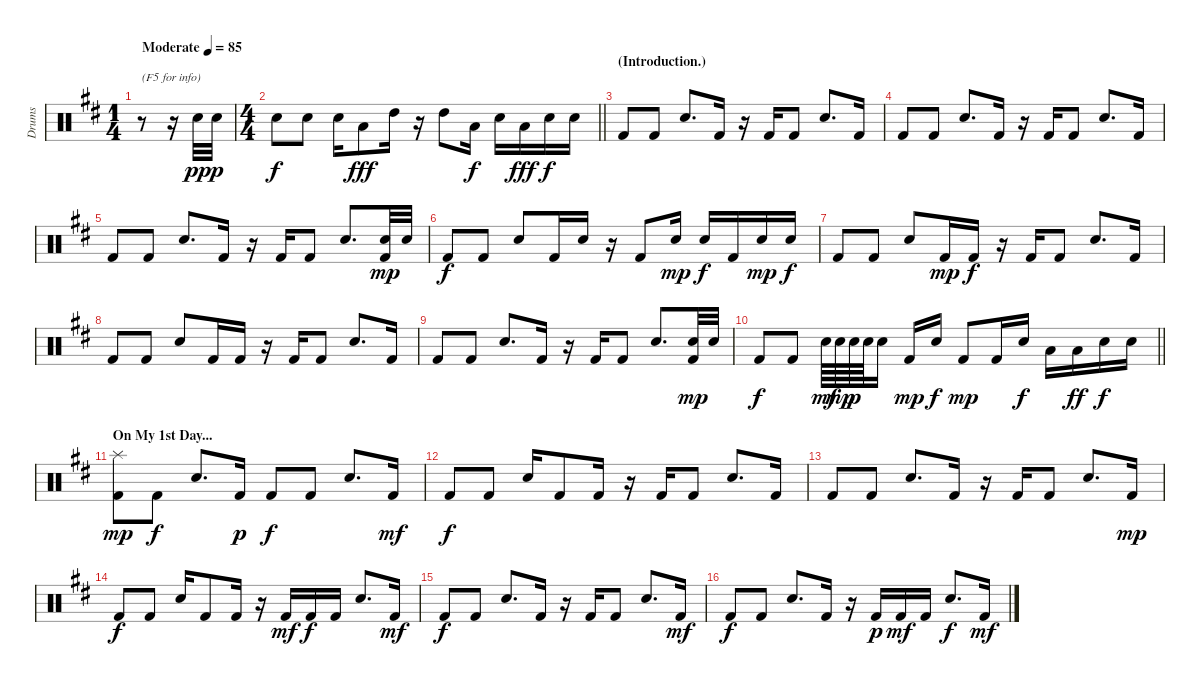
\track ("Drums" "Drums") {instrument percussion}
\staff {score}
\articulation defaults
\ts (1 4)
\tempo (85 "Moderate")
\clef neutral
\ks bminor
r.8{txt "(F5 for info)" dy pp} r.16 "Electric Snare (hit)".32 "Electric Snare (hit)".32{dy p} |
\ts (4 4)
\barLineRight lightlight "Electric Snare (hit)".8{dy f} "Electric Snare (hit)".8 "Electric Snare (hit)".16 "Low Tom (hit)".8{dy fff} "High Tom (hit)".16
r.16 "High Tom (hit)".8 "Low Floor Tom (hit)".16{dy f} "Electric Snare (hit)".16 "Low Tom (hit)".16{dy fff} "Electric Snare (hit)".16{dy f} "Electric Snare (hit)".16 |
\section ("" "(Introduction.)")
"Kick (hit) 2".8 "Kick (hit) 2".8 "Electric Snare (hit)".8{d} "Kick (hit) 2".16 r.16 "Kick (hit) 2".16 "Kick (hit) 2".8 "Electric Snare (hit)".8{d} "Kick (hit) 2".16 |
"Kick (hit) 2".8 "Kick (hit) 2".8 "Electric Snare (hit)".8{d} "Kick (hit) 2".16 r.16 "Kick (hit) 2".16 "Kick (hit) 2".8 "Electric Snare (hit)".8{d} "Kick (hit) 2".16 |
"Kick (hit) 2".8 "Kick (hit) 2".8 "Electric Snare (hit)".8{d} "Kick (hit) 2".16 r.16 "Kick (hit) 2".16 "Kick (hit) 2".8 "Electric Snare (hit)".8{d} ("Electric Snare (hit)" "Kick (hit) 2").32{dy mp} "Electric Snare (hit)".32 |
"Kick (hit) 2".8{dy f} "Kick (hit) 2".8 "Electric Snare (hit)".8 "Kick (hit) 2".16 "Electric Snare (hit)".16 r.16 "Kick (hit) 2".8 "Electric Snare (hit)".16{dy mp} "Electric Snare (hit)".16{dy f} "Kick (hit) 2".16 "Electric Snare (hit)".16{dy mp} "Electric Snare (hit)".16{dy f} |
"Kick (hit) 2".8 "Kick (hit) 2".8 "Electric Snare (hit)".8 "Kick (hit) 2".16{dy mp} "Kick (hit) 2".16{dy f} r.16 "Kick (hit) 2".16 "Kick (hit) 2".8 "Electric Snare (hit)".8{d} "Kick (hit) 2".16 |
"Kick (hit) 2".8 "Kick (hit) 2".8 "Electric Snare (hit)".8 "Kick (hit) 2".16 "Kick (hit) 2".16 r.16 "Kick (hit) 2".16 "Kick (hit) 2".8 "Electric Snare (hit)".8{d} "Kick (hit) 2".16 |
"Kick (hit) 2".8 "Kick (hit) 2".8 "Electric Snare (hit)".8{d} "Kick (hit) 2".16 r.16 "Kick (hit) 2".16 "Kick (hit) 2".8 "Electric Snare (hit)".8{d} ("Electric Snare (hit)" "Kick (hit) 2").32{dy mp} "Electric Snare (hit)".32 |
\barLineRight lightlight "Kick (hit) 2".8{dy f} "Kick (hit) 2".8 "Electric Snare (hit)".64{dy mf} "Electric Snare (hit)".64{dy mp} "Electric Snare (hit)".64{dy p} "Electric Snare (hit)".64 "Electric Snare (hit)".16{beam split} "Kick (hit) 2".16{dy mp} "Electric Snare (hit)".16{dy f} "Kick (hit) 2".8{dy mp} "Kick (hit) 2".16 "Electric Snare (hit)".16{dy f} "Low Tom (hit)".16 "Low Tom (hit)".16{dy ff} "Electric Snare (hit)".16{dy f} "Electric Snare (hit)".16
|
\section ("" "On My 1st Day...")
("Splash (hit)" "Kick (hit) 2").8{dy mp} "Kick (hit) 2".8{dy f} "Electric Snare (hit)".8{d} "Kick (hit) 2".16{dy p} "Kick (hit) 2".8{dy f} "Kick (hit) 2".8 "Electric Snare (hit)".8{d} "Kick (hit) 2".16{dy mf} |
"Kick (hit) 2".8{dy f} "Kick (hit) 2".8 "Electric Snare (hit)".16 "Kick (hit) 2".8 "Kick (hit) 2".16 r.16 "Kick (hit) 2".16 "Kick (hit) 2".8 "Electric Snare (hit)".8{d} "Kick (hit) 2".16 |
"Kick (hit) 2".8 "Kick (hit) 2".8 "Electric Snare (hit)".8{d} "Kick (hit) 2".16 r.16 "Kick (hit) 2".16 "Kick (hit) 2".8 "Electric Snare (hit)".8{d} "Kick (hit) 2".16{dy mp} |
"Kick (hit) 2".8{dy f} "Kick (hit) 2".8 "Electric Snare (hit)".16 "Kick (hit) 2".8 "Kick (hit) 2".16 r.16 "Kick (hit) 2".16{dy mf} "Kick (hit) 2".16{dy f} "Kick (hit) 2".16 "Electric Snare (hit)".8{d} "Kick (hit) 2".16{dy mf} |
"Kick (hit) 2".8{dy f} "Kick (hit) 2".8 "Electric Snare (hit)".8{d} "Kick (hit) 2".16 r.16 "Kick (hit) 2".16 "Kick (hit) 2".8 "Electric Snare (hit)".8{d} "Kick (hit) 2".16{dy mf} |
"Kick (hit) 2".8{dy f} "Kick (hit) 2".8 "Electric Snare (hit)".8{d} "Kick (hit) 2".16 r.16 "Kick (hit) 2".16{dy p} "Kick (hit) 2".16{dy mf} "Kick (hit) 2".16 "Electric Snare (hit)".8{d dy f} "Kick (hit) 2".16{dy mf}
